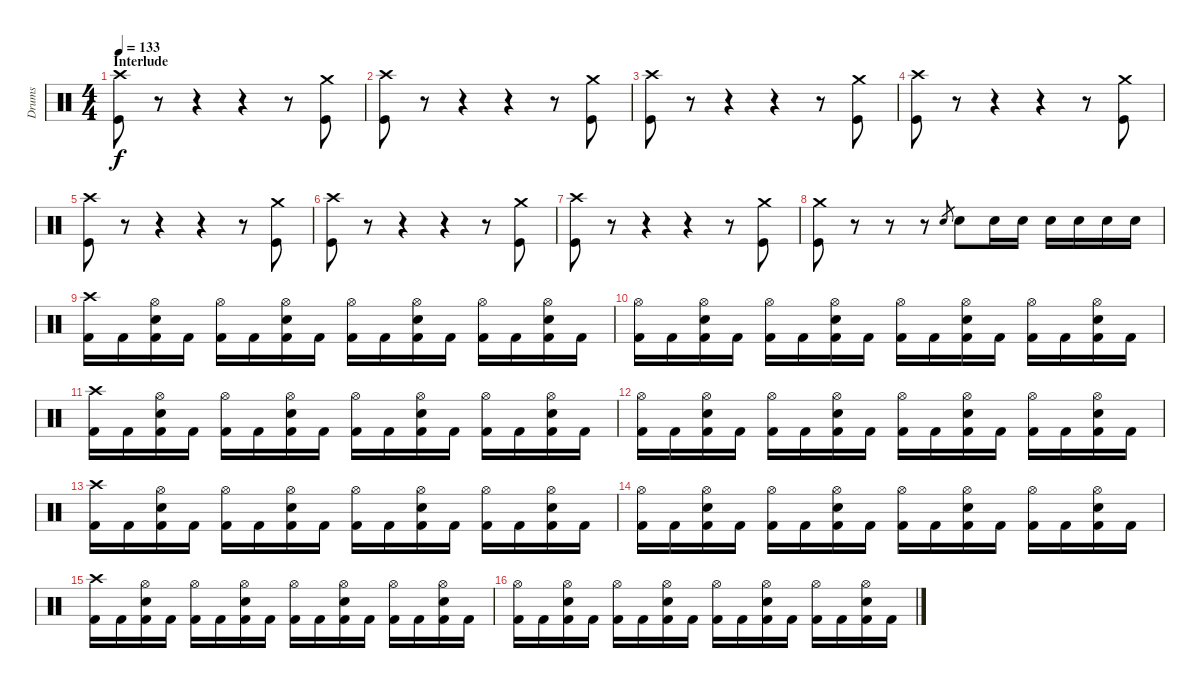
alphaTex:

\track ("Drums" "Drums") {instrument percussion}
\staff {score}
\articulation defaults
\ts (4 4)
\section ("" "Interlude")
\tempo 133
\clef neutral
\ks c
("Crash high (hit)" "Kick (hit)").8{dy f} r.8 r.4 r.4 r.8 ("Crash medium (hit)" "Kick (hit)").8 |
("Crash high (hit)" "Kick (hit)").8 r.8 r.4 r.4 r.8 ("Crash medium (hit)" "Kick (hit)").8 |
("Crash high (hit)" "Kick (hit)").8 r.8 r.4 r.4 r.8 ("Crash medium (hit)" "Kick (hit)").8 |
("Crash high (hit)" "Kick (hit)").8 r.8 r.4 r.4 r.8 ("Crash medium (hit)" "Kick (hit)").8 |
("Crash high (hit)" "Kick (hit)").8 r.8 r.4 r.4 r.8 ("Crash medium (hit)" "Kick (hit)").8 |
("Crash high (hit)" "Kick (hit)").8 r.8 r.4 r.4 r.8 ("Crash medium (hit)" "Kick (hit)").8 |
("Crash high (hit)" "Kick (hit)").8 r.8 r.4 r.4 r.8 ("Crash medium (hit)" "Kick (hit)").8 |
("Crash medium (hit)" "Kick (hit)").8 r.8 r.8 r.8 "Electric Snare (hit)".8{gr} "Electric Snare (hit)".8 "Electric Snare (hit)".16 "Electric Snare (hit)".16 "Electric Snare (hit)".16 "Electric Snare (hit)".16 "Electric Snare (hit)".16 "Electric Snare (hit)".16 |
("Crash high (hit)" "Kick (hit) 2").16 "Kick (hit) 2".16 ("Hi-Hat (open)" "Electric Snare (hit)" "Kick (hit) 2").16 "Kick (hit) 2".16 ("Hi-Hat (open)" "Kick (hit) 2").16 "Kick (hit) 2".16 ("Hi-Hat (open)" "Electric Snare (hit)" "Kick (hit) 2").16 "Kick (hit) 2".16 ("Hi-Hat (open)" "Kick (hit) 2").16 "Kick (hit) 2".16 ("Hi-Hat (open)" "Electric Snare (hit)" "Kick (hit) 2").16 "Kick (hit) 2".16 ("Hi-Hat (open)" "Kick (hit) 2").16 "Kick (hit) 2".16 ("Hi-Hat (open)" "Electric Snare (hit)" "Kick (hit) 2").16 "Kick (hit) 2".16 |
("Hi-Hat (open)" "Kick (hit) 2").16 "Kick (hit) 2".16 ("Hi-Hat (open)" "Electric Snare (hit)" "Kick (hit) 2").16 "Kick (hit) 2".16 ("Hi-Hat (open)" "Kick (hit) 2").16 "Kick (hit) 2".16 ("Hi-Hat (open)" "Electric Snare (hit)" "Kick (hit) 2").16 "Kick (hit) 2".16 ("Hi-Hat (open)" "Kick (hit) 2").16 "Kick (hit) 2".16 ("Hi-Hat (open)" "Electric Snare (hit)" "Kick (hit) 2").16 "Kick (hit) 2".16 ("Hi-Hat (open)" "Kick (hit) 2").16 "Kick (hit) 2".16 ("Hi-Hat (open)" "Electric Snare (hit)" "Kick (hit) 2").16 "Kick (hit) 2".16 |
("Crash high (hit)" "Kick (hit) 2").16 "Kick (hit) 2".16 ("Hi-Hat (open)" "Electric Snare (hit)" "Kick (hit) 2").16 "Kick (hit) 2".16 ("Hi-Hat (open)" "Kick (hit) 2").16 "Kick (hit) 2".16 ("Hi-Hat (open)" "Electric Snare (hit)" "Kick (hit) 2").16 "Kick (hit) 2".16 ("Hi-Hat (open)" "Kick (hit) 2").16 "Kick (hit) 2".16 ("Hi-Hat (open)" "Electric Snare (hit)" "Kick (hit) 2").16 "Kick (hit) 2".16 ("Hi-Hat (open)" "Kick (hit) 2").16 "Kick (hit) 2".16 ("Hi-Hat (open)" "Electric Snare (hit)" "Kick (hit) 2").16 "Kick (hit) 2".16 |
("Hi-Hat (open)" "Kick (hit) 2").16 "Kick (hit) 2".16 ("Hi-Hat (open)" "Electric Snare (hit)" "Kick (hit) 2").16 "Kick (hit) 2".16 ("Hi-Hat (open)" "Kick (hit) 2").16 "Kick (hit) 2".16 ("Hi-Hat (open)" "Electric Snare (hit)" "Kick (hit) 2").16 "Kick (hit) 2".16 ("Hi-Hat (open)" "Kick (hit) 2").16 "Kick (hit) 2".16 ("Hi-Hat (open)" "Electric Snare (hit)" "Kick (hit) 2").16 "Kick (hit) 2".16 ("Hi-Hat (open)" "Kick (hit) 2").16 "Kick (hit) 2".16 ("Hi-Hat (open)" "Electric Snare (hit)" "Kick (hit) 2").16 "Kick (hit) 2".16 |
("Crash high (hit)" "Kick (hit) 2").16 "Kick (hit) 2".16 ("Hi-Hat (open)" "Electric Snare (hit)" "Kick (hit) 2").16 "Kick (hit) 2".16 ("Hi-Hat (open)" "Kick (hit) 2").16 "Kick (hit) 2".16 ("Hi-Hat (open)" "Electric Snare (hit)" "Kick (hit) 2").16 "Kick (hit) 2".16 ("Hi-Hat (open)" "Kick (hit) 2").16 "Kick (hit) 2".16 ("Hi-Hat (open)" "Electric Snare (hit)" "Kick (hit) 2").16 "Kick (hit) 2".16 ("Hi-Hat (open)" "Kick (hit) 2").16 "Kick (hit) 2".16 ("Hi-Hat (open)" "Electric Snare (hit)" "Kick (hit) 2").16 "Kick (hit) 2".16 |
("Hi-Hat (open)" "Kick (hit) 2").16 "Kick (hit) 2".16 ("Hi-Hat (open)" "Electric Snare (hit)" "Kick (hit) 2").16 "Kick (hit) 2".16 ("Hi-Hat (open)" "Kick (hit) 2").16 "Kick (hit) 2".16 ("Hi-Hat (open)" "Electric Snare (hit)" "Kick (hit) 2").16 "Kick (hit) 2".16 ("Hi-Hat (open)" "Kick (hit) 2").16 "Kick (hit) 2".16 ("Hi-Hat (open)" "Electric Snare (hit)" "Kick (hit) 2").16 "Kick (hit) 2".16 ("Hi-Hat (open)" "Kick (hit) 2").16 "Kick (hit) 2".16 ("Hi-Hat (open)" "Electric Snare (hit)" "Kick (hit) 2").16 "Kick (hit) 2".16 |
("Crash high (hit)" "Kick (hit) 2").16 "Kick (hit) 2".16 ("Hi-Hat (open)" "Electric Snare (hit)" "Kick (hit) 2").16 "Kick (hit) 2".16 ("Hi-Hat (open)" "Kick (hit) 2").16 "Kick (hit) 2".16 ("Hi-Hat (open)" "Electric Snare (hit)" "Kick (hit) 2").16 "Kick (hit) 2".16 ("Hi-Hat (open)" "Kick (hit) 2").16 "Kick (hit) 2".16 ("Hi-Hat (open)" "Electric Snare (hit)" "Kick (hit) 2").16 "Kick (hit) 2".16 ("Hi-Hat (open)" "Kick (hit) 2").16 "Kick (hit) 2".16 ("Hi-Hat (open)" "Electric Snare (hit)" "Kick (hit) 2").16 "Kick (hit) 2".16 |
("Hi-Hat (open)" "Kick (hit) 2").16 "Kick (hit) 2".16 ("Hi-Hat (open)" "Electric Snare (hit)" "Kick (hit) 2").16 "Kick (hit) 2".16 ("Hi-Hat (open)" "Kick (hit) 2").16 "Kick (hit) 2".16 ("Hi-Hat (open)" "Electric Snare (hit)" "Kick (hit) 2").16 "Kick (hit) 2".16 ("Hi-Hat (open)" "Kick (hit) 2").16 "Kick (hit) 2".16 ("Hi-Hat (open)" "Electric Snare (hit)" "Kick (hit) 2").16 "Kick (hit) 2".16 ("Hi-Hat (open)" "Kick (hit) 2").16 "Kick (hit) 2".16 ("Hi-Hat (open)" "Electric Snare (hit)" "Kick (hit) 2").16 "Kick (hit) 2".16
